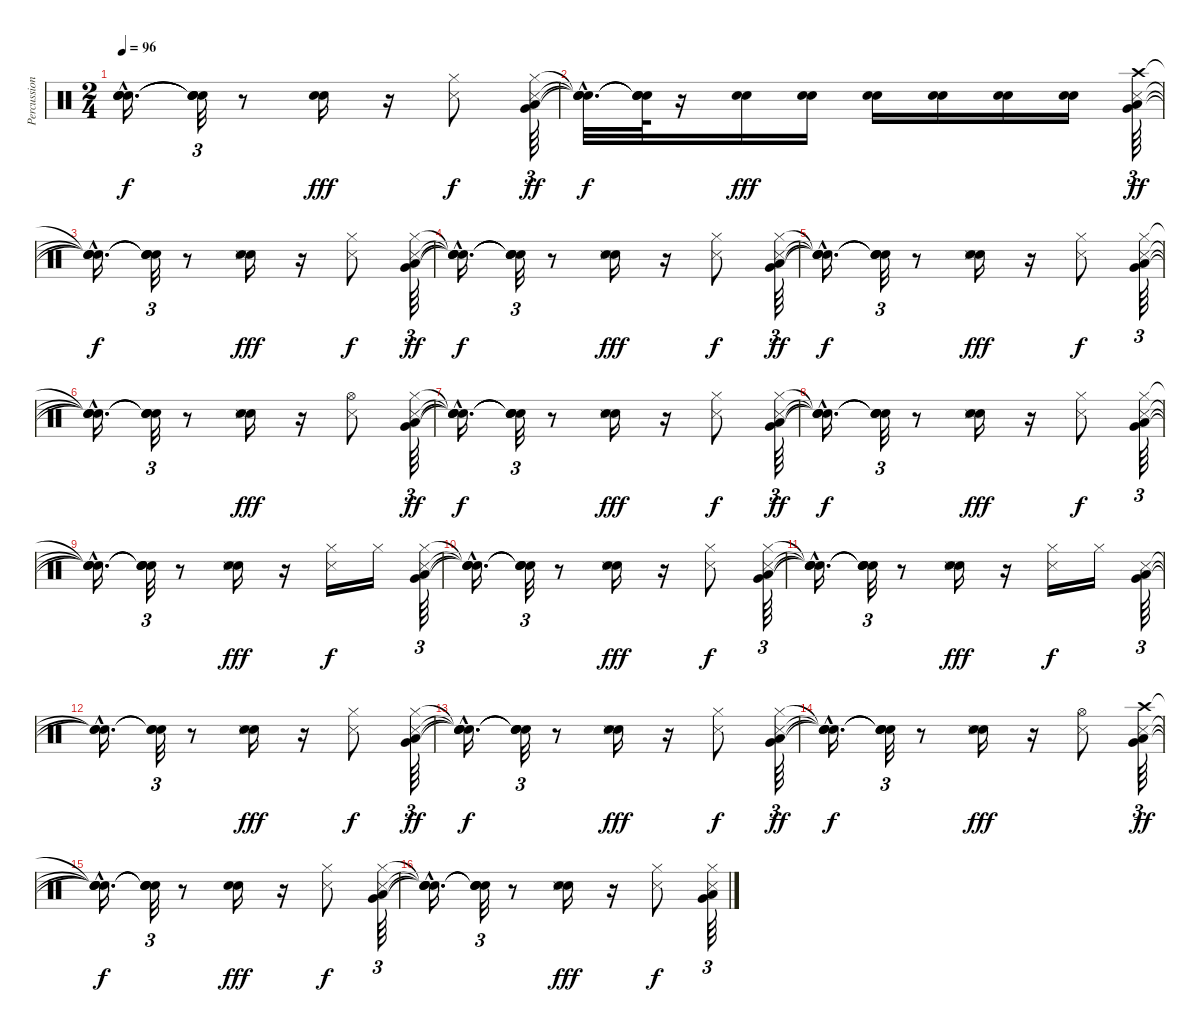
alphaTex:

\track ("Percussion" "Percussion") {instrument percussion}
\staff {score}
\articulation defaults
\ts (2 4)
\tempo 96
\clef neutral
\ks c
("Snare (hit)"{hac t} "Snare (hit)"{hac t} "Snare (hit)"{hac t} "Snare (hit)"{hac t}).16{d dy f} ("Snare (hit)"{t} "Snare (hit)"{t} "Snare (hit)"{t} "Snare (hit)"{t}).32{tu (3 2)} r.8 ("Electric Snare (hit)" "Snare (hit) 2").16{dy fff} r.16 ("Hi-Hat (closed)" "Snare (side stick) 3").8{dy f} ("Hi-Hat (closed)" "Snare (side stick) 3" "Very Low Tom (hit)" "Low Floor Tom (hit)").64{tu (3 2) dy ff} |
("Snare (hit)"{hac t} "Snare (hit)"{hac t} "Snare (hit)"{hac t} "Snare (hit)"{hac t}).32{d dy f} ("Snare (hit)"{t} "Snare (hit)"{t} "Snare (hit)"{t} "Snare (hit)"{t}).64 r.16 ("Electric Snare (hit)" "Snare (hit) 2").16{dy fff} ("Electric Snare (hit)" "Snare (hit) 2").16 ("Electric Snare (hit)" "Snare (hit) 2").16 ("Electric Snare (hit)" "Snare (hit) 2").16 ("Electric Snare (hit)" "Snare (hit) 2").16 ("Electric Snare (hit)" "Snare (hit) 2").16 ("Crash high (hit)" "Snare (side stick) 3" "Very Low Tom (hit)" "Low Floor Tom (hit)").64{tu (3 2) dy ff} |
("Snare (hit)"{hac t} "Snare (hit)"{hac t} "Snare (hit)"{hac t} "Snare (hit)"{hac t}).16{d dy f} ("Snare (hit)"{t} "Snare (hit)"{t} "Snare (hit)"{t} "Snare (hit)"{t}).32{tu (3 2)} r.8 ("Electric Snare (hit)" "Snare (side stick) 3" "Snare (hit) 2").16{dy fff} r.16 ("Hi-Hat (closed)" "Snare (side stick) 3").8{dy f} ("Hi-Hat (closed)" "Snare (side stick) 3" "Very Low Tom (hit)" "Low Floor Tom (hit)").64{tu (3 2) dy ff} |
("Snare (hit)"{hac t} "Snare (hit)"{hac t} "Snare (hit)"{hac t} "Snare (hit)"{hac t}).16{d dy f} ("Snare (hit)"{t} "Snare (hit)"{t} "Snare (hit)"{t} "Snare (hit)"{t}).32{tu (3 2)} r.8 ("Electric Snare (hit)" "Snare (side stick) 3" "Snare (hit) 2").16{dy fff} r.16 ("Hi-Hat (closed)" "Snare (side stick) 3").8{dy f} ("Hi-Hat (closed)" "Snare (side stick) 3" "Very Low Tom (hit)" "Low Floor Tom (hit)").64{tu (3 2) dy ff} |
("Snare (hit)"{hac t} "Snare (hit)"{hac t} "Snare (hit)"{hac t} "Snare (hit)"{hac t}).16{d dy f} ("Snare (hit)"{t} "Snare (hit)"{t} "Snare (hit)"{t} "Snare (hit)"{t}).32{tu (3 2)} r.8 ("Electric Snare (hit)" "Snare (side stick) 3" "Snare (hit) 2").16{dy fff} r.16 ("Hi-Hat (closed)" "Snare (side stick) 3").8{dy f} ("Hi-Hat (closed)" "Snare (side stick) 3" "Very Low Tom (hit)" "Low Floor Tom (hit)").64{tu (3 2)} |
("Snare (hit)"{hac t} "Snare (hit)"{hac t} "Snare (hit)"{hac t} "Snare (hit)"{hac t}).16{d} ("Snare (hit)"{t} "Snare (hit)"{t} "Snare (hit)"{t} "Snare (hit)"{t}).32{tu (3 2)} r.8 ("Electric Snare (hit)" "Snare (side stick) 3" "Snare (hit) 2").16{dy fff} r.16 ("Hi-Hat (open)" "Snare (side stick) 3").8 ("Hi-Hat (closed)" "Snare (side stick) 3" "Very Low Tom (hit)" "Low Floor Tom (hit)").64{tu (3 2) dy ff} |
("Snare (hit)"{hac t} "Snare (hit)"{hac t} "Snare (hit)"{hac t} "Snare (hit)"{hac t}).16{d dy f} ("Snare (hit)"{t} "Snare (hit)"{t} "Snare (hit)"{t} "Snare (hit)"{t}).32{tu (3 2)} r.8 ("Electric Snare (hit)" "Snare (side stick) 3" "Snare (hit) 2").16{dy fff} r.16 ("Hi-Hat (closed)" "Snare (side stick) 3").8{dy f} ("Hi-Hat (closed)" "Snare (side stick) 3" "Very Low Tom (hit)" "Low Floor Tom (hit)").64{tu (3 2) dy ff} |
("Snare (hit)"{hac t} "Snare (hit)"{hac t} "Snare (hit)"{hac t} "Snare (hit)"{hac t}).16{d dy f} ("Snare (hit)"{t} "Snare (hit)"{t} "Snare (hit)"{t} "Snare (hit)"{t}).32{tu (3 2)} r.8 ("Electric Snare (hit)" "Snare (side stick) 3" "Snare (hit) 2").16{dy fff} r.16 ("Hi-Hat (closed)" "Snare (side stick) 3").8{dy f} ("Hi-Hat (closed)" "Snare (side stick) 3" "Very Low Tom (hit)" "Low Floor Tom (hit)").64{tu (3 2)} |
("Snare (hit)"{hac t} "Snare (hit)"{hac t} "Snare (hit)"{hac t} "Snare (hit)"{hac t}).16{d} ("Snare (hit)"{t} "Snare (hit)"{t} "Snare (hit)"{t} "Snare (hit)"{t}).32{tu (3 2)} r.8 ("Electric Snare (hit)" "Snare (side stick) 3" "Snare (hit) 2").16{dy fff} r.16 ("Hi-Hat (closed)" "Snare (side stick) 3").16{dy f} "Hi-Hat (closed)".16 ("Hi-Hat (closed)" "Snare (side stick) 3" "Very Low Tom (hit)" "Low Floor Tom (hit)").64{tu (3 2)} |
("Snare (hit)"{hac t} "Snare (hit)"{hac t} "Snare (hit)"{hac t} "Snare (hit)"{hac t}).16{d} ("Snare (hit)"{t} "Snare (hit)"{t} "Snare (hit)"{t} "Snare (hit)"{t}).32{tu (3 2)} r.8 ("Electric Snare (hit)" "Snare (side stick) 3" "Snare (hit) 2").16{dy fff} r.16 ("Hi-Hat (closed)" "Snare (side stick) 3").8{dy f} ("Hi-Hat (closed)" "Snare (side stick) 3" "Very Low Tom (hit)" "Low Floor Tom (hit)").64{tu (3 2)} |
("Snare (hit)"{hac t} "Snare (hit)"{hac t} "Snare (hit)"{hac t} "Snare (hit)"{hac t}).16{d} ("Snare (hit)"{t} "Snare (hit)"{t} "Snare (hit)"{t} "Snare (hit)"{t}).32{tu (3 2)} r.8 ("Electric Snare (hit)" "Snare (side stick) 3" "Snare (hit) 2").16{dy fff} r.16 ("Hi-Hat (closed)" "Snare (side stick) 3").16{dy f} "Hi-Hat (closed)".16 ("Snare (side stick) 3" "Very Low Tom (hit)" "Low Floor Tom (hit)").64{tu (3 2)} |
("Snare (hit)"{hac t} "Snare (hit)"{hac t} "Snare (hit)"{hac t}).16{d} ("Snare (hit)"{t} "Snare (hit)"{t} "Snare (hit)"{t}).32{tu (3 2)} r.8 ("Electric Snare (hit)" "Snare (side stick) 3" "Snare (hit) 2").16{dy fff} r.16 ("Hi-Hat (closed)" "Snare (side stick) 3").8{dy f} ("Hi-Hat (closed)" "Snare (side stick) 3" "Very Low Tom (hit)" "Low Floor Tom (hit)").64{tu (3 2) dy ff} |
("Snare (hit)"{hac t} "Snare (hit)"{hac t} "Snare (hit)"{hac t} "Snare (hit)"{hac t}).16{d dy f} ("Snare (hit)"{t} "Snare (hit)"{t} "Snare (hit)"{t} "Snare (hit)"{t}).32{tu (3 2)} r.8 ("Electric Snare (hit)" "Snare (side stick) 3" "Snare (hit) 2").16{dy fff} r.16 ("Hi-Hat (closed)" "Snare (side stick) 3").8{dy f} ("Hi-Hat (closed)" "Snare (side stick) 3" "Very Low Tom (hit)" "Low Floor Tom (hit)").64{tu (3 2) dy ff} |
("Snare (hit)"{hac t} "Snare (hit)"{hac t} "Snare (hit)"{hac t} "Snare (hit)"{hac t}).16{d dy f} ("Snare (hit)"{t} "Snare (hit)"{t} "Snare (hit)"{t} "Snare (hit)"{t}).32{tu (3 2)} r.8 ("Electric Snare (hit)" "Snare (side stick) 3" "Snare (hit) 2").16{dy fff} r.16 ("Hi-Hat (open)" "Snare (side stick) 3").8 ("Crash high (hit)" "Snare (side stick) 3" "Very Low Tom (hit)" "Low Floor Tom (hit)").64{tu (3 2) dy ff} |
("Snare (hit)"{hac t} "Snare (hit)"{hac t} "Snare (hit)"{hac t} "Snare (hit)"{hac t}).16{d dy f} ("Snare (hit)"{t} "Snare (hit)"{t} "Snare (hit)"{t} "Snare (hit)"{t}).32{tu (3 2)} r.8 ("Electric Snare (hit)" "Snare (hit) 2").16{dy fff} r.16 ("Hi-Hat (closed)" "Snare (side stick) 3").8{dy f} ("Hi-Hat (closed)" "Snare (side stick) 3" "Very Low Tom (hit)" "Low Floor Tom (hit)").64{tu (3 2)} |
("Snare (hit)"{hac t} "Snare (hit)"{hac t} "Snare (hit)"{hac t} "Snare (hit)"{hac t}).16{d} ("Snare (hit)"{t} "Snare (hit)"{t} "Snare (hit)"{t} "Snare (hit)"{t}).32{tu (3 2)} r.8 ("Electric Snare (hit)" "Snare (side stick) 3" "Snare (hit) 2").16{dy fff} r.16 ("Hi-Hat (closed)" "Snare (side stick) 3").8{dy f} ("Hi-Hat (closed)" "Snare (side stick) 3" "Very Low Tom (hit)" "Low Floor Tom (hit)").64{tu (3 2)}
